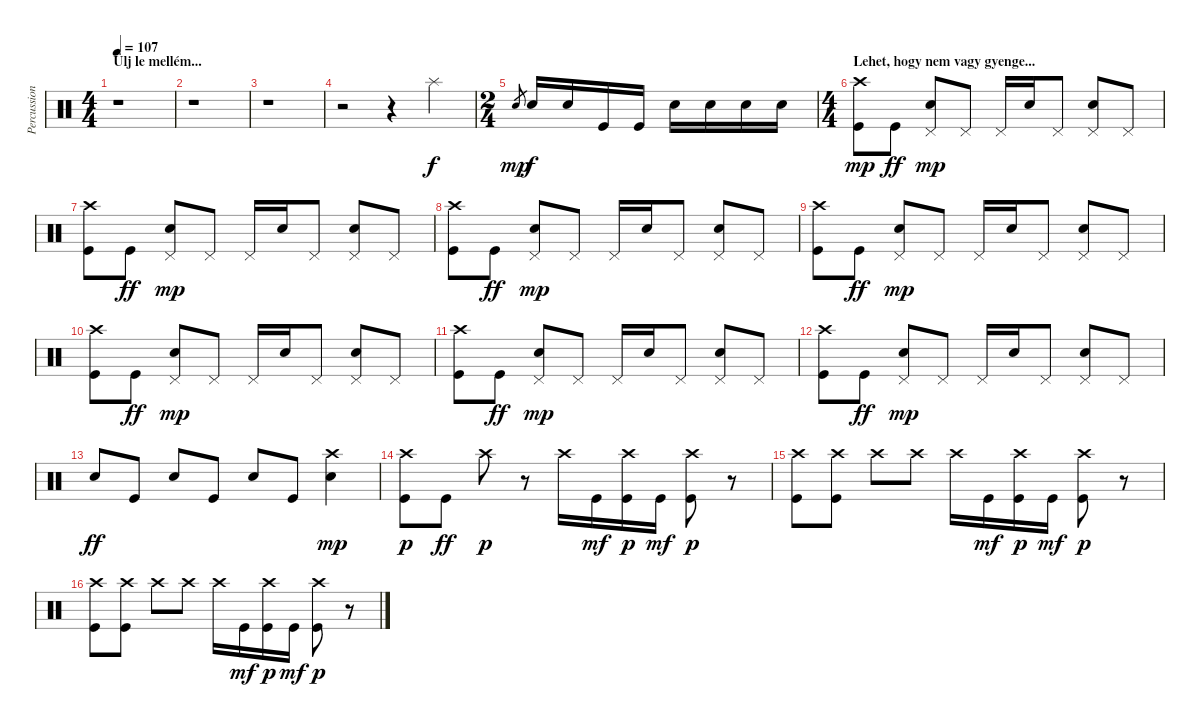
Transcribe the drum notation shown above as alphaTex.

\track ("Percussion" "Percussion") {instrument percussion}
\staff {score}
\articulation defaults
\ts (4 4)
\section ("" "Ülj le mellém...")
\tempo 107
\clef neutral
\ks c
r.1{dy f} |
r.1 |
r.1 |
r.2 r.4 "Splash (hit)".4 |
\ts (2 4)
"Electric Snare (hit)".8{gr dy mp} "Electric Snare (hit)".16{dy f} "Electric Snare (hit)".16 "Kick (hit)".16 "Kick (hit)".16 "Electric Snare (hit)".16 "Electric Snare (hit)".16 "Electric Snare (hit)".16 "Electric Snare (hit)".16 |
\ts (4 4)
\section ("" "Lehet, hogy nem vagy gyenge...")
("Kick (hit)" "Crash high (hit)").8{dy mp} "Kick (hit)".8{dy ff} ("Electric Snare (hit)" "Pedal Hi-Hat (hit)").8{dy mp} "Pedal Hi-Hat (hit)".8 "Pedal Hi-Hat (hit)".16 "Electric Snare (hit)".16 "Pedal Hi-Hat (hit)".8 ("Electric Snare (hit)" "Pedal Hi-Hat (hit)").8 "Pedal Hi-Hat (hit)".8 |
("Kick (hit)" "Crash high (hit)").8 "Kick (hit)".8{dy ff} ("Electric Snare (hit)" "Pedal Hi-Hat (hit)").8{dy mp} "Pedal Hi-Hat (hit)".8 "Pedal Hi-Hat (hit)".16 "Electric Snare (hit)".16 "Pedal Hi-Hat (hit)".8 ("Electric Snare (hit)" "Pedal Hi-Hat (hit)").8 "Pedal Hi-Hat (hit)".8 |
("Kick (hit)" "Crash high (hit)").8 "Kick (hit)".8{dy ff} ("Electric Snare (hit)" "Pedal Hi-Hat (hit)").8{dy mp} "Pedal Hi-Hat (hit)".8 "Pedal Hi-Hat (hit)".16 "Electric Snare (hit)".16 "Pedal Hi-Hat (hit)".8 ("Electric Snare (hit)" "Pedal Hi-Hat (hit)").8 "Pedal Hi-Hat (hit)".8 |
("Kick (hit)" "Crash high (hit)").8 "Kick (hit)".8{dy ff} ("Electric Snare (hit)" "Pedal Hi-Hat (hit)").8{dy mp} "Pedal Hi-Hat (hit)".8 "Pedal Hi-Hat (hit)".16 "Electric Snare (hit)".16 "Pedal Hi-Hat (hit)".8 ("Electric Snare (hit)" "Pedal Hi-Hat (hit)").8 "Pedal Hi-Hat (hit)".8 |
("Kick (hit)" "Crash high (hit)").8 "Kick (hit)".8{dy ff} ("Electric Snare (hit)" "Pedal Hi-Hat (hit)").8{dy mp} "Pedal Hi-Hat (hit)".8 "Pedal Hi-Hat (hit)".16 "Electric Snare (hit)".16 "Pedal Hi-Hat (hit)".8 ("Electric Snare (hit)" "Pedal Hi-Hat (hit)").8 "Pedal Hi-Hat (hit)".8 |
("Kick (hit)" "Crash high (hit)").8 "Kick (hit)".8{dy ff} ("Electric Snare (hit)" "Pedal Hi-Hat (hit)").8{dy mp} "Pedal Hi-Hat (hit)".8 "Pedal Hi-Hat (hit)".16 "Electric Snare (hit)".16 "Pedal Hi-Hat (hit)".8 ("Electric Snare (hit)" "Pedal Hi-Hat (hit)").8 "Pedal Hi-Hat (hit)".8 |
("Kick (hit)" "Crash high (hit)").8 "Kick (hit)".8{dy ff} ("Electric Snare (hit)" "Pedal Hi-Hat (hit)").8{dy mp} "Pedal Hi-Hat (hit)".8 "Pedal Hi-Hat (hit)".16 "Electric Snare (hit)".16 "Pedal Hi-Hat (hit)".8 ("Electric Snare (hit)" "Pedal Hi-Hat (hit)").8 "Pedal Hi-Hat (hit)".8 |
"Electric Snare (hit)".8{dy ff} "Kick (hit)".8 "Electric Snare (hit)".8 "Kick (hit)".8 "Electric Snare (hit)".8 "Kick (hit)".8 ("Electric Snare (hit)" "Crash high (hit)").4{dy mp} |
("Kick (hit)" "Crash high (hit)").8{dy p} "Kick (hit)".8{dy ff} "Crash high (hit)".8{dy p} r.8 "Crash high (hit)".16 "Kick (hit)".16{dy mf} ("Kick (hit)" "Crash high (hit)").16{dy p} "Kick (hit)".16{dy mf} ("Kick (hit)" "Crash high (hit)").8{dy p} r.8 |
("Kick (hit)" "Crash high (hit)").8 ("Kick (hit)" "Crash high (hit)").8 "Crash high (hit)".8 "Crash high (hit)".8 "Crash high (hit)".16 "Kick (hit)".16{dy mf} ("Kick (hit)" "Crash high (hit)").16{dy p} "Kick (hit)".16{dy mf} ("Kick (hit)" "Crash high (hit)").8{dy p} r.8 |
("Kick (hit)" "Crash high (hit)").8 ("Kick (hit)" "Crash high (hit)").8 "Crash high (hit)".8 "Crash high (hit)".8 "Crash high (hit)".16 "Kick (hit)".16{dy mf} ("Kick (hit)" "Crash high (hit)").16{dy p} "Kick (hit)".16{dy mf} ("Kick (hit)" "Crash high (hit)").8{dy p} r.8
